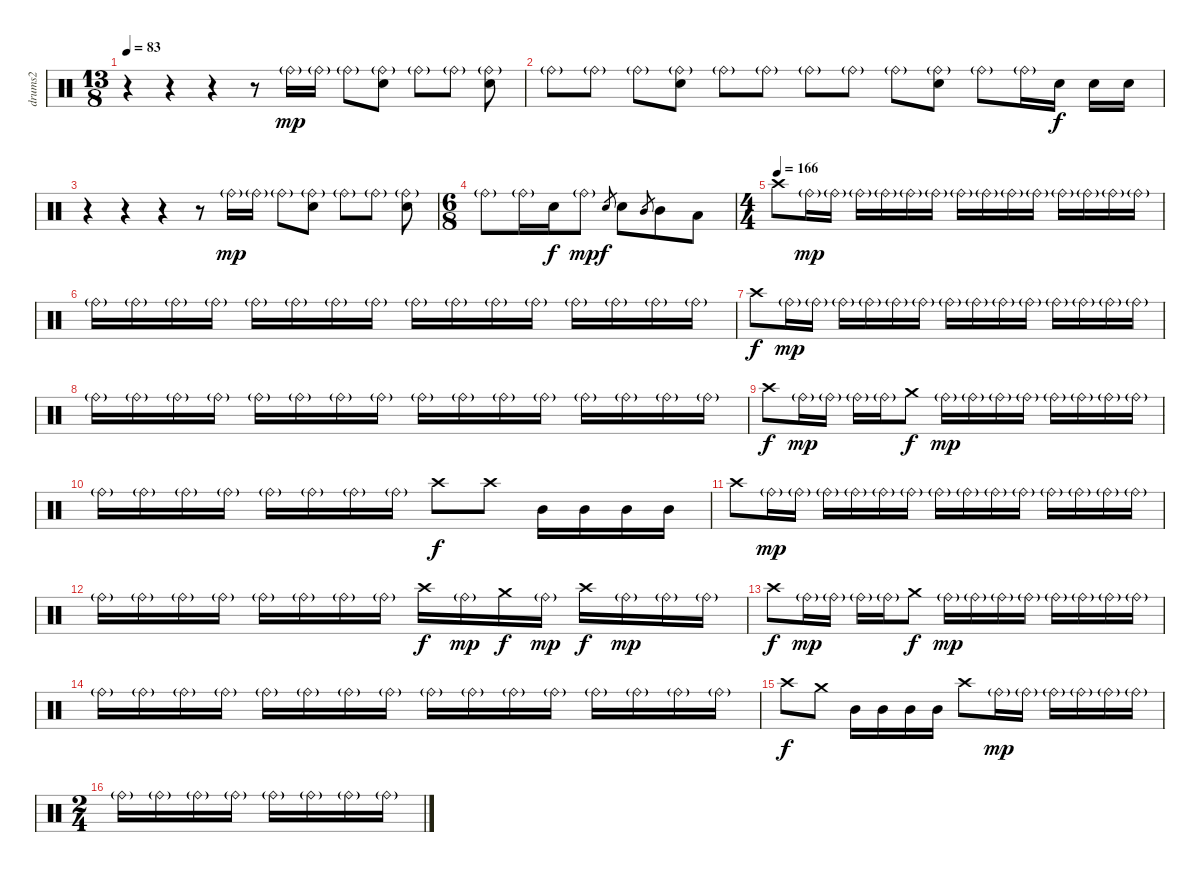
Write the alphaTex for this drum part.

\track ("drums2" "drums2") {instrument percussion}
\staff {score}
\articulation defaults
\ts (13 8)
\tempo 83
\clef neutral
\ks c
r.4{dy f} r.4 r.4 r.8 "Ride (bell)"{g}.16{dy mp} "Ride (bell)"{g}.16 "Ride (bell)"{g}.8 ("Ride (bell)"{g} "Snare (hit) 2").8 "Ride (bell)"{g}.8 "Ride (bell)"{g}.8 ("Ride (bell)"{g} "Snare (hit) 2").8 |
"Ride (bell)"{g}.8 "Ride (bell)"{g}.8 "Ride (bell)"{g}.8 ("Ride (bell)"{g} "Snare (hit) 2").8 "Ride (bell)"{g}.8 "Ride (bell)"{g}.8 "Ride (bell)"{g}.8 "Ride (bell)"{g}.8 "Ride (bell)"{g}.8 ("Ride (bell)"{g} "Snare (hit) 2").8 "Ride (bell)"{g}.8 "Ride (bell)"{g}.16 "Snare (hit) 2".16{dy f} "Snare (hit) 2".16 "Snare (hit) 2".16 |
r.4 r.4 r.4 r.8 "Ride (bell)"{g}.16{dy mp} "Ride (bell)"{g}.16 "Ride (bell)"{g}.8 ("Ride (bell)"{g} "Snare (hit) 2").8 "Ride (bell)"{g}.8 "Ride (bell)"{g}.8 ("Ride (bell)"{g} "Snare (hit) 2").8 |
\ts (6 8)
"Ride (bell)"{g}.8 "Ride (bell)"{g}.16 "Snare (hit) 2".16{dy f} "Ride (bell)"{g}.8{dy mp} "Snare (hit) 2".8{gr dy f} "Snare (hit) 2".8 "Mid Tom (hit)".8{gr} "Mid Tom (hit)".8 "Low Floor Tom (hit)".8 |
\ts (4 4)
\tempo (166)
"Crash high (hit)".8 "Ride (bell)"{g}.16{dy mp} "Ride (bell)"{g}.16 "Ride (bell)"{g}.16 "Ride (bell)"{g}.16 "Ride (bell)"{g}.16 "Ride (bell)"{g}.16 "Ride (bell)"{g}.16 "Ride (bell)"{g}.16 "Ride (bell)"{g}.16 "Ride (bell)"{g}.16 "Ride (bell)"{g}.16 "Ride (bell)"{g}.16 "Ride (bell)"{g}.16 "Ride (bell)"{g}.16 |
"Ride (bell)"{g}.16 "Ride (bell)"{g}.16 "Ride (bell)"{g}.16 "Ride (bell)"{g}.16 "Ride (bell)"{g}.16 "Ride (bell)"{g}.16 "Ride (bell)"{g}.16 "Ride (bell)"{g}.16 "Ride (bell)"{g}.16 "Ride (bell)"{g}.16 "Ride (bell)"{g}.16 "Ride (bell)"{g}.16 "Ride (bell)"{g}.16 "Ride (bell)"{g}.16 "Ride (bell)"{g}.16 "Ride (bell)"{g}.16 |
"Crash high (hit)".8{dy f} "Ride (bell)"{g}.16{dy mp} "Ride (bell)"{g}.16 "Ride (bell)"{g}.16 "Ride (bell)"{g}.16 "Ride (bell)"{g}.16 "Ride (bell)"{g}.16 "Ride (bell)"{g}.16 "Ride (bell)"{g}.16 "Ride (bell)"{g}.16 "Ride (bell)"{g}.16 "Ride (bell)"{g}.16 "Ride (bell)"{g}.16 "Ride (bell)"{g}.16 "Ride (bell)"{g}.16 |
"Ride (bell)"{g}.16 "Ride (bell)"{g}.16 "Ride (bell)"{g}.16 "Ride (bell)"{g}.16 "Ride (bell)"{g}.16 "Ride (bell)"{g}.16 "Ride (bell)"{g}.16 "Ride (bell)"{g}.16 "Ride (bell)"{g}.16 "Ride (bell)"{g}.16 "Ride (bell)"{g}.16 "Ride (bell)"{g}.16 "Ride (bell)"{g}.16 "Ride (bell)"{g}.16 "Ride (bell)"{g}.16 "Ride (bell)"{g}.16 |
"Crash high (hit)".8{dy f} "Ride (bell)"{g}.16{dy mp} "Ride (bell)"{g}.16 "Ride (bell)"{g}.16 "Ride (bell)"{g}.16 "Crash medium (hit)".8{dy f} "Ride (bell)"{g}.16{dy mp} "Ride (bell)"{g}.16 "Ride (bell)"{g}.16 "Ride (bell)"{g}.16 "Ride (bell)"{g}.16 "Ride (bell)"{g}.16 "Ride (bell)"{g}.16 "Ride (bell)"{g}.16 |
"Ride (bell)"{g}.16 "Ride (bell)"{g}.16 "Ride (bell)"{g}.16 "Ride (bell)"{g}.16 "Ride (bell)"{g}.16 "Ride (bell)"{g}.16 "Ride (bell)"{g}.16 "Ride (bell)"{g}.16 "Crash high (hit)".8{dy f} "Crash high (hit)".8 "Mid Tom (hit)".16 "Mid Tom (hit)".16 "Mid Tom (hit)".16 "Mid Tom (hit)".16 |
"Crash high (hit)".8 "Ride (bell)"{g}.16{dy mp} "Ride (bell)"{g}.16 "Ride (bell)"{g}.16 "Ride (bell)"{g}.16 "Ride (bell)"{g}.16 "Ride (bell)"{g}.16 "Ride (bell)"{g}.16 "Ride (bell)"{g}.16 "Ride (bell)"{g}.16 "Ride (bell)"{g}.16 "Ride (bell)"{g}.16 "Ride (bell)"{g}.16 "Ride (bell)"{g}.16 "Ride (bell)"{g}.16 |
"Ride (bell)"{g}.16 "Ride (bell)"{g}.16 "Ride (bell)"{g}.16 "Ride (bell)"{g}.16 "Ride (bell)"{g}.16 "Ride (bell)"{g}.16 "Ride (bell)"{g}.16 "Ride (bell)"{g}.16 "Crash high (hit)".16{dy f} "Ride (bell)"{g}.16{dy mp} "Crash medium (hit)".16{dy f} "Ride (bell)"{g}.16{dy mp} "Crash high (hit)".16{dy f} "Ride (bell)"{g}.16{dy mp} "Ride (bell)"{g}.16 "Ride (bell)"{g}.16 |
"Crash high (hit)".8{dy f} "Ride (bell)"{g}.16{dy mp} "Ride (bell)"{g}.16 "Ride (bell)"{g}.16 "Ride (bell)"{g}.16 "Crash medium (hit)".8{dy f} "Ride (bell)"{g}.16{dy mp} "Ride (bell)"{g}.16 "Ride (bell)"{g}.16 "Ride (bell)"{g}.16 "Ride (bell)"{g}.16 "Ride (bell)"{g}.16 "Ride (bell)"{g}.16 "Ride (bell)"{g}.16 |
"Ride (bell)"{g}.16 "Ride (bell)"{g}.16 "Ride (bell)"{g}.16 "Ride (bell)"{g}.16 "Ride (bell)"{g}.16 "Ride (bell)"{g}.16 "Ride (bell)"{g}.16 "Ride (bell)"{g}.16 "Ride (bell)"{g}.16 "Ride (bell)"{g}.16 "Ride (bell)"{g}.16 "Ride (bell)"{g}.16 "Ride (bell)"{g}.16 "Ride (bell)"{g}.16 "Ride (bell)"{g}.16 "Ride (bell)"{g}.16 |
"Crash high (hit)".8{dy f} "Crash medium (hit)".8 "Mid Tom (hit)".16 "Mid Tom (hit)".16 "Mid Tom (hit)".16 "Mid Tom (hit)".16 "Crash high (hit)".8 "Ride (bell)"{g}.16{dy mp} "Ride (bell)"{g}.16 "Ride (bell)"{g}.16 "Ride (bell)"{g}.16 "Ride (bell)"{g}.16 "Ride (bell)"{g}.16 |
\ts (2 4)
"Ride (bell)"{g}.16 "Ride (bell)"{g}.16 "Ride (bell)"{g}.16 "Ride (bell)"{g}.16 "Ride (bell)"{g}.16 "Ride (bell)"{g}.16 "Ride (bell)"{g}.16 "Ride (bell)"{g}.16
